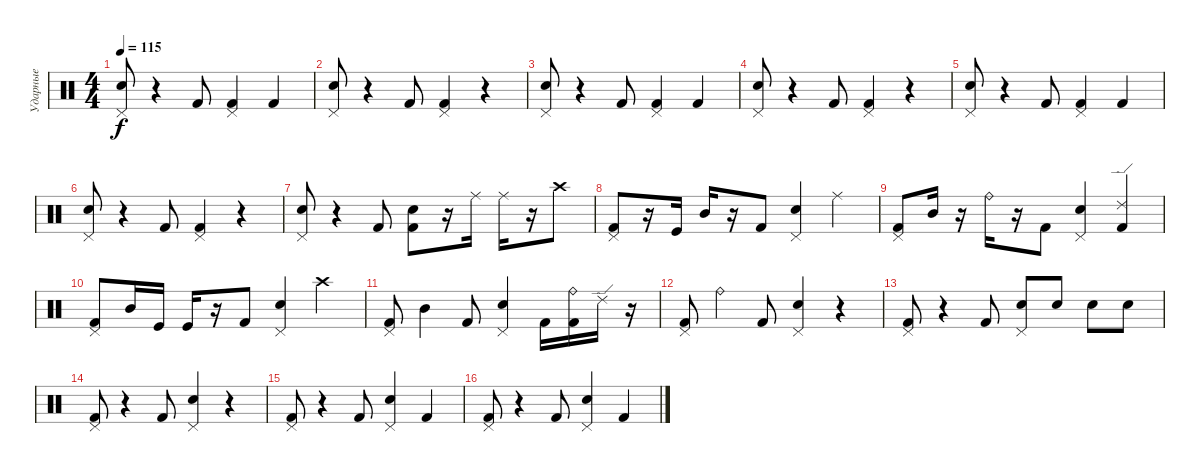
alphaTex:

\track ("Ударные" "Ударные") {instrument percussion}
\staff {score}
\articulation defaults
\ts (4 4)
\tempo 115
\clef neutral
\ks c
("Snare (hit) 2" "Pedal Hi-Hat (hit)").8{dy f} r.4 "Kick (hit) 2".8 ("Kick (hit) 2" "Pedal Hi-Hat (hit)").4 "Kick (hit) 2".4 |
("Snare (hit) 2" "Pedal Hi-Hat (hit)").8 r.4 "Kick (hit) 2".8 ("Kick (hit) 2" "Pedal Hi-Hat (hit)").4 r.4 |
("Snare (hit) 2" "Pedal Hi-Hat (hit)").8 r.4 "Kick (hit) 2".8 ("Kick (hit) 2" "Pedal Hi-Hat (hit)").4 "Kick (hit) 2".4 |
("Snare (hit) 2" "Pedal Hi-Hat (hit)").8 r.4 "Kick (hit) 2".8 ("Kick (hit) 2" "Pedal Hi-Hat (hit)").4 r.4 |
("Snare (hit) 2" "Pedal Hi-Hat (hit)").8 r.4 "Kick (hit) 2".8 ("Kick (hit) 2" "Pedal Hi-Hat (hit)").4 "Kick (hit) 2".4 |
("Snare (hit) 2" "Pedal Hi-Hat (hit)").8 r.4 "Kick (hit) 2".8 ("Kick (hit) 2" "Pedal Hi-Hat (hit)").4 r.4 |
("Snare (hit) 2" "Pedal Hi-Hat (hit)").8 r.4 "Kick (hit) 2".8 ("Kick (hit) 2" "Snare (hit) 2").8 r.16 "Ride (middle)".16 "Ride (middle)".16 r.16 "Crash high (hit)".8 |
("Kick (hit) 2" "Pedal Hi-Hat (hit)").8 r.16 "Kick (hit)".16 "Mid Tom (hit)".16 r.16 "Kick (hit) 2".8 ("Snare (hit) 2" "Pedal Hi-Hat (hit)").4 "Ride (middle)".4 |
("Kick (hit) 2" "Pedal Hi-Hat (hit)").8 "Mid Tom (hit)".16 r.16 "Ride (bell)".16 r.16 "Kick (hit) 2".8 ("Snare (hit) 2" "Pedal Hi-Hat (hit)").4 ("Kick (hit) 2" "Ride (edge) 2").4 |
("Kick (hit) 2" "Pedal Hi-Hat (hit)").8 "Mid Tom (hit)".16 "Kick (hit)".16 "Kick (hit)".16 r.16 "Kick (hit) 2".8 ("Snare (hit) 2" "Pedal Hi-Hat (hit)").4 "Crash high (hit)".4 |
("Kick (hit) 2" "Pedal Hi-Hat (hit)").8 "Mid Tom (hit)".4 "Kick (hit) 2".8 ("Snare (hit) 2" "Pedal Hi-Hat (hit)").4 "Kick (hit) 2".16 ("Kick (hit) 2" "Ride (bell)").16 "Ride (edge) 2".16 r.16 |
("Kick (hit) 2" "Pedal Hi-Hat (hit)").8 "Ride (bell)".4 "Kick (hit) 2".8 ("Snare (hit) 2" "Pedal Hi-Hat (hit)").4 r.4 |
("Kick (hit) 2" "Pedal Hi-Hat (hit)").8 r.4 "Kick (hit) 2".8 ("Snare (hit) 2" "Pedal Hi-Hat (hit)").8 "Snare (hit) 2".8 "Snare (hit) 2".8 "Snare (hit) 2".8 |
("Kick (hit) 2" "Pedal Hi-Hat (hit)").8 r.4 "Kick (hit) 2".8 ("Snare (hit) 2" "Pedal Hi-Hat (hit)").4 r.4 |
("Kick (hit) 2" "Pedal Hi-Hat (hit)").8 r.4 "Kick (hit) 2".8 ("Snare (hit) 2" "Pedal Hi-Hat (hit)").4 "Kick (hit) 2".4 |
("Kick (hit) 2" "Pedal Hi-Hat (hit)").8 r.4 "Kick (hit) 2".8 ("Snare (hit) 2" "Pedal Hi-Hat (hit)").4 "Kick (hit) 2".4
